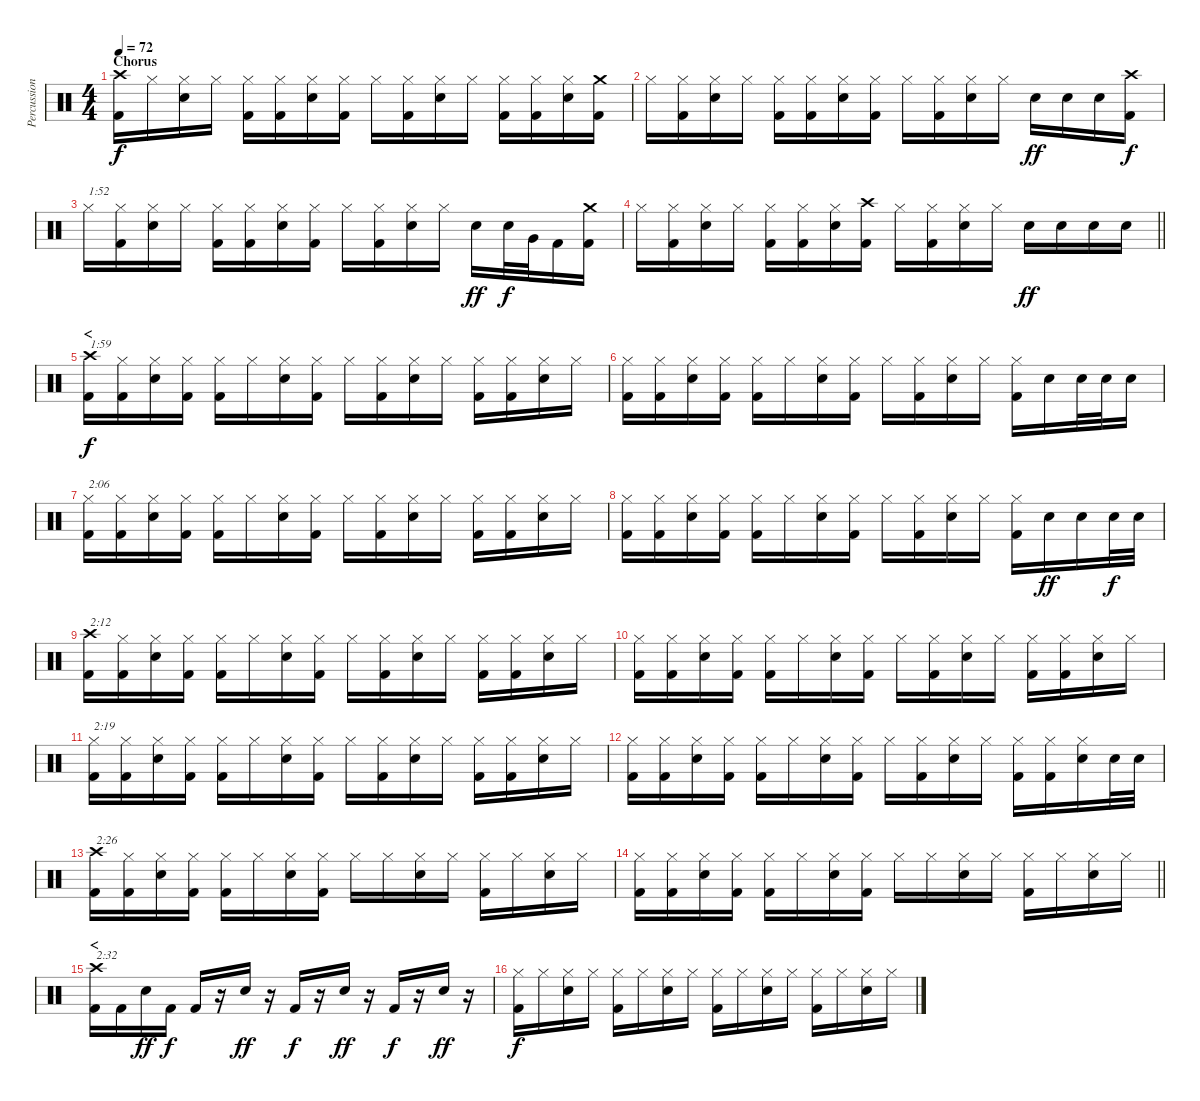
\track ("Percussion" "Percussion") {instrument percussion}
\staff {score}
\articulation defaults
\ts (4 4)
\section ("" "Chorus")
\tempo 72
\clef neutral
\ks c
("Crash high (hit)" "Kick (hit) 2").16{dy f} "Hi-Hat (closed)".16 ("Hi-Hat (closed)" "Snare (hit) 2").16 "Hi-Hat (closed)".16 ("Hi-Hat (closed)" "Kick (hit) 2").16 ("Hi-Hat (closed)" "Kick (hit) 2").16 ("Hi-Hat (closed)" "Snare (hit) 2").16 ("Hi-Hat (closed)" "Kick (hit) 2").16 "Hi-Hat (closed)".16 ("Hi-Hat (closed)" "Kick (hit) 2").16 ("Hi-Hat (closed)" "Snare (hit) 2").16 "Hi-Hat (closed)".16 ("Hi-Hat (closed)" "Kick (hit) 2").16 ("Hi-Hat (closed)" "Kick (hit) 2").16 ("Hi-Hat (closed)" "Snare (hit) 2").16 ("Crash medium (hit)" "Kick (hit) 2").16 |
"Hi-Hat (closed)".16 ("Hi-Hat (closed)" "Kick (hit) 2").16 ("Hi-Hat (closed)" "Snare (hit) 2").16 "Hi-Hat (closed)".16 ("Hi-Hat (closed)" "Kick (hit) 2").16 ("Hi-Hat (closed)" "Kick (hit) 2").16 ("Hi-Hat (closed)" "Snare (hit) 2").16 ("Hi-Hat (closed)" "Kick (hit) 2").16 "Hi-Hat (closed)".16 ("Hi-Hat (closed)" "Kick (hit) 2").16 ("Hi-Hat (closed)" "Snare (hit) 2").16 "Hi-Hat (closed)".16 "Snare (hit) 2".16{dy ff} "Snare (hit) 2".16 "Snare (hit) 2".16 ("Crash high (hit)" "Kick (hit) 2").16{dy f} |
"Hi-Hat (closed)".16{txt "1:52"} ("Hi-Hat (closed)" "Kick (hit) 2").16 ("Hi-Hat (closed)" "Snare (hit) 2").16 "Hi-Hat (closed)".16 ("Hi-Hat (closed)" "Kick (hit) 2").16 ("Hi-Hat (closed)" "Kick (hit) 2").16 ("Hi-Hat (closed)" "Snare (hit) 2").16 ("Hi-Hat (closed)" "Kick (hit) 2").16 "Hi-Hat (closed)".16 ("Hi-Hat (closed)" "Kick (hit) 2").16 ("Hi-Hat (closed)" "Snare (hit) 2").16 "Hi-Hat (closed)".16 "Snare (hit) 2".16{dy ff} "Snare (hit) 2".32{dy f} "Very Low Tom (hit)".32 "Kick (hit) 2".16 ("Crash medium (hit)" "Kick (hit) 2").16 |
\barLineRight lightlight "Hi-Hat (closed)".16
("Hi-Hat (closed)" "Kick (hit) 2").16 ("Hi-Hat (closed)" "Snare (hit) 2").16 "Hi-Hat (closed)".16 ("Hi-Hat (closed)" "Kick (hit) 2").16 ("Hi-Hat (closed)" "Kick (hit) 2").16 ("Hi-Hat (closed)" "Snare (hit) 2").16 ("Crash high (hit)" "Kick (hit) 2").16 "Hi-Hat (closed)".16 ("Hi-Hat (closed)" "Kick (hit) 2").16 ("Hi-Hat (closed)" "Snare (hit) 2").16 "Hi-Hat (closed)".16 "Snare (hit) 2".16{dy ff} "Snare (hit) 2".16 "Snare (hit) 2".16 "Snare (hit) 2".16 |
\section ("" "<")
("Crash high (hit)" "Kick (hit) 2").16{txt "1:59" dy f} ("Hi-Hat (closed)" "Kick (hit) 2").16 ("Hi-Hat (closed)" "Snare (hit) 2").16 ("Hi-Hat (closed)" "Kick (hit) 2").16 ("Hi-Hat (closed)" "Kick (hit) 2").16 "Hi-Hat (closed)".16 ("Hi-Hat (closed)" "Snare (hit) 2").16 ("Hi-Hat (closed)" "Kick (hit) 2").16 "Hi-Hat (closed)".16 ("Hi-Hat (closed)" "Kick (hit) 2").16 ("Hi-Hat (closed)" "Snare (hit) 2").16 "Hi-Hat (closed)".16 ("Hi-Hat (closed)" "Kick (hit) 2").16 ("Hi-Hat (closed)" "Kick (hit) 2").16 ("Hi-Hat (closed)" "Snare (hit) 2").16 "Hi-Hat (closed)".16 |
("Hi-Hat (closed)" "Kick (hit) 2").16 ("Hi-Hat (closed)" "Kick (hit) 2").16 ("Hi-Hat (closed)" "Snare (hit) 2").16 ("Hi-Hat (closed)" "Kick (hit) 2").16 ("Hi-Hat (closed)" "Kick (hit) 2").16 "Hi-Hat (closed)".16 ("Hi-Hat (closed)" "Snare (hit) 2").16 ("Hi-Hat (closed)" "Kick (hit) 2").16 "Hi-Hat (closed)".16 ("Hi-Hat (closed)" "Kick (hit) 2").16 ("Hi-Hat (closed)" "Snare (hit) 2").16 "Hi-Hat (closed)".16 ("Hi-Hat (closed)" "Kick (hit) 2").16 "Snare (hit) 2".16 "Snare (hit) 2".32 "Snare (hit) 2".32 "Snare (hit) 2".16 |
("Hi-Hat (closed)" "Kick (hit) 2").16{txt "2:06"} ("Hi-Hat (closed)" "Kick (hit) 2").16 ("Hi-Hat (closed)" "Snare (hit) 2").16 ("Hi-Hat (closed)" "Kick (hit) 2").16 ("Hi-Hat (closed)" "Kick (hit) 2").16 "Hi-Hat (closed)".16 ("Hi-Hat (closed)" "Snare (hit) 2").16 ("Hi-Hat (closed)" "Kick (hit) 2").16 "Hi-Hat (closed)".16 ("Hi-Hat (closed)" "Kick (hit) 2").16 ("Hi-Hat (closed)" "Snare (hit) 2").16 "Hi-Hat (closed)".16 ("Hi-Hat (closed)" "Kick (hit) 2").16 ("Hi-Hat (closed)" "Kick (hit) 2").16 ("Hi-Hat (closed)" "Snare (hit) 2").16 "Hi-Hat (closed)".16 |
("Hi-Hat (closed)" "Kick (hit) 2").16 ("Hi-Hat (closed)" "Kick (hit) 2").16 ("Hi-Hat (closed)" "Snare (hit) 2").16 ("Hi-Hat (closed)" "Kick (hit) 2").16 ("Hi-Hat (closed)" "Kick (hit) 2").16 "Hi-Hat (closed)".16 ("Hi-Hat (closed)" "Snare (hit) 2").16 ("Hi-Hat (closed)" "Kick (hit) 2").16 "Hi-Hat (closed)".16 ("Hi-Hat (closed)" "Kick (hit) 2").16 ("Hi-Hat (closed)" "Snare (hit) 2").16 "Hi-Hat (closed)".16 ("Hi-Hat (closed)" "Kick (hit) 2").16 "Snare (hit) 2".16{dy ff} "Snare (hit) 2".16 "Snare (hit) 2".32{dy f} "Snare (hit) 2".32 |
("Crash high (hit)" "Kick (hit) 2").16{txt "2:12"} ("Hi-Hat (closed)" "Kick (hit) 2").16 ("Hi-Hat (closed)" "Snare (hit) 2").16 ("Hi-Hat (closed)" "Kick (hit) 2").16 ("Hi-Hat (closed)" "Kick (hit) 2").16 "Hi-Hat (closed)".16 ("Hi-Hat (closed)" "Snare (hit) 2").16 ("Hi-Hat (closed)" "Kick (hit) 2").16 "Hi-Hat (closed)".16 ("Hi-Hat (closed)" "Kick (hit) 2").16 ("Hi-Hat (closed)" "Snare (hit) 2").16 "Hi-Hat (closed)".16 ("Hi-Hat (closed)" "Kick (hit) 2").16 ("Hi-Hat (closed)" "Kick (hit) 2").16 ("Hi-Hat (closed)" "Snare (hit) 2").16 "Hi-Hat (closed)".16 |
("Hi-Hat (closed)" "Kick (hit) 2").16 ("Hi-Hat (closed)" "Kick (hit) 2").16 ("Hi-Hat (closed)" "Snare (hit) 2").16 ("Hi-Hat (closed)" "Kick (hit) 2").16 ("Hi-Hat (closed)" "Kick (hit) 2").16 "Hi-Hat (closed)".16 ("Hi-Hat (closed)" "Snare (hit) 2").16 ("Hi-Hat (closed)" "Kick (hit) 2").16 "Hi-Hat (closed)".16 ("Hi-Hat (closed)" "Kick (hit) 2").16 ("Hi-Hat (closed)" "Snare (hit) 2").16 "Hi-Hat (closed)".16 ("Hi-Hat (closed)" "Kick (hit) 2").16 ("Hi-Hat (closed)" "Kick (hit) 2").16 ("Hi-Hat (closed)" "Snare (hit) 2").16 "Hi-Hat (closed)".16 |
("Hi-Hat (closed)" "Kick (hit) 2").16{txt "2:19"} ("Hi-Hat (closed)" "Kick (hit) 2").16 ("Hi-Hat (closed)" "Snare (hit) 2").16 ("Hi-Hat (closed)" "Kick (hit) 2").16 ("Hi-Hat (closed)" "Kick (hit) 2").16 "Hi-Hat (closed)".16 ("Hi-Hat (closed)" "Snare (hit) 2").16 ("Hi-Hat (closed)" "Kick (hit) 2").16 "Hi-Hat (closed)".16 ("Hi-Hat (closed)" "Kick (hit) 2").16 ("Hi-Hat (closed)" "Snare (hit) 2").16 "Hi-Hat (closed)".16 ("Hi-Hat (closed)" "Kick (hit) 2").16 ("Hi-Hat (closed)" "Kick (hit) 2").16 ("Hi-Hat (closed)" "Snare (hit) 2").16 "Hi-Hat (closed)".16 |
("Hi-Hat (closed)" "Kick (hit) 2").16 ("Hi-Hat (closed)" "Kick (hit) 2").16 ("Hi-Hat (closed)" "Snare (hit) 2").16 ("Hi-Hat (closed)" "Kick (hit) 2").16 ("Hi-Hat (closed)" "Kick (hit) 2").16 "Hi-Hat (closed)".16 ("Hi-Hat (closed)" "Snare (hit) 2").16 ("Hi-Hat (closed)" "Kick (hit) 2").16 "Hi-Hat (closed)".16 ("Hi-Hat (closed)" "Kick (hit) 2").16 ("Hi-Hat (closed)" "Snare (hit) 2").16 "Hi-Hat (closed)".16 ("Hi-Hat (closed)" "Kick (hit) 2").16 ("Hi-Hat (closed)" "Kick (hit) 2").16 ("Hi-Hat (closed)" "Snare (hit) 2").16 "Snare (hit) 2".32 "Snare (hit) 2".32 |
("Crash high (hit)" "Kick (hit) 2").16{txt "2:26"} ("Hi-Hat (closed)" "Kick (hit) 2").16 ("Hi-Hat (closed)" "Snare (hit) 2").16 ("Hi-Hat (closed)" "Kick (hit) 2").16 ("Hi-Hat (closed)" "Kick (hit) 2").16 "Hi-Hat (closed)".16 ("Hi-Hat (closed)" "Snare (hit) 2").16 ("Hi-Hat (closed)" "Kick (hit) 2").16 "Hi-Hat (closed)".16 "Hi-Hat (closed)".16 ("Hi-Hat (closed)" "Snare (hit) 2").16 "Hi-Hat (closed)".16 ("Hi-Hat (closed)" "Kick (hit) 2").16 "Hi-Hat (closed)".16 ("Hi-Hat (closed)" "Snare (hit) 2").16 "Hi-Hat (closed)".16 |
\barLineRight lightlight
("Hi-Hat (closed)" "Kick (hit) 2").16 ("Hi-Hat (closed)" "Kick (hit) 2").16 ("Hi-Hat (closed)" "Snare (hit) 2").16 ("Hi-Hat (closed)" "Kick (hit) 2").16 ("Hi-Hat (closed)" "Kick (hit) 2").16 "Hi-Hat (closed)".16 ("Hi-Hat (closed)" "Snare (hit) 2").16 ("Hi-Hat (closed)" "Kick (hit) 2").16 "Hi-Hat (closed)".16 "Hi-Hat (closed)".16 ("Hi-Hat (closed)" "Snare (hit) 2").16 "Hi-Hat (closed)".16 ("Hi-Hat (closed)" "Kick (hit) 2").16 "Hi-Hat (closed)".16 ("Hi-Hat (closed)" "Snare (hit) 2").16 "Hi-Hat (closed)".16 |
\section ("" "<")
("Crash high (hit)" "Kick (hit) 2").16{txt "2:32"} "Kick (hit) 2".16 "Snare (hit) 2".16{dy ff} "Kick (hit) 2".16{dy f} "Kick (hit) 2".16 r.16 "Snare (hit) 2".16{dy ff} r.16 "Kick (hit) 2".16{dy f} r.16 "Snare (hit) 2".16{dy ff} r.16 "Kick (hit) 2".16{dy f} r.16 "Snare (hit) 2".16{dy ff} r.16 |
("Hi-Hat (closed)" "Kick (hit) 2").16{dy f} "Hi-Hat (closed)".16 ("Hi-Hat (closed)" "Snare (hit) 2").16 "Hi-Hat (closed)".16 ("Hi-Hat (closed)" "Kick (hit) 2").16 "Hi-Hat (closed)".16 ("Hi-Hat (closed)" "Snare (hit) 2").16 "Hi-Hat (closed)".16 ("Hi-Hat (closed)" "Kick (hit) 2").16 "Hi-Hat (closed)".16 ("Hi-Hat (closed)" "Snare (hit) 2").16 "Hi-Hat (closed)".16 ("Hi-Hat (closed)" "Kick (hit) 2").16 "Hi-Hat (closed)".16 ("Hi-Hat (closed)" "Snare (hit) 2").16 "Hi-Hat (closed)".16
